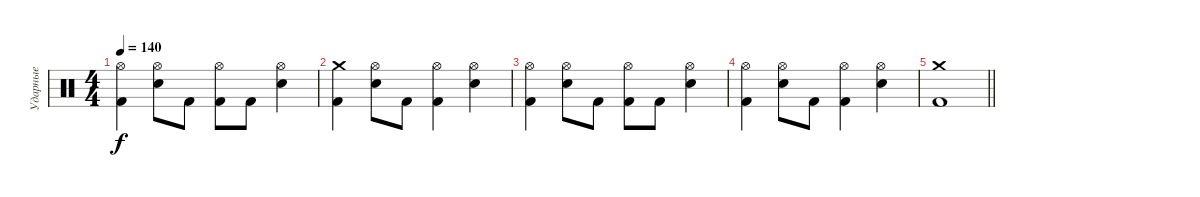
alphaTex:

\track ("Ударные" "Ударные") {instrument percussion}
\staff {score}
\articulation defaults
\ts (4 4)
\tempo 140
\clef neutral
\ks c
("Hi-Hat (open)" "Kick (hit) 2").4{dy f} ("Hi-Hat (open)" "Snare (hit) 2").8 "Kick (hit) 2".8 ("Kick (hit) 2" "Hi-Hat (open)").8 "Kick (hit) 2".8 ("Snare (hit) 2" "Hi-Hat (open)").4 |
("Kick (hit) 2" "Crash medium (hit)").4 ("Hi-Hat (open)" "Snare (hit) 2").8 "Kick (hit) 2".8 ("Hi-Hat (open)" "Kick (hit) 2").4 ("Snare (hit) 2" "Hi-Hat (open)").4 |
("Hi-Hat (open)" "Kick (hit) 2").4 ("Hi-Hat (open)" "Snare (hit) 2").8 "Kick (hit) 2".8 ("Kick (hit) 2" "Hi-Hat (open)").8 "Kick (hit) 2".8 ("Snare (hit) 2" "Hi-Hat (open)").4 |
("Kick (hit) 2" "Hi-Hat (open)").4 ("Hi-Hat (open)" "Snare (hit) 2").8 "Kick (hit) 2".8 ("Hi-Hat (open)" "Kick (hit) 2").4 ("Snare (hit) 2" "Hi-Hat (open)").4 |
\barLineRight lightlight
("Kick (hit) 2" "Crash medium (hit)").1
